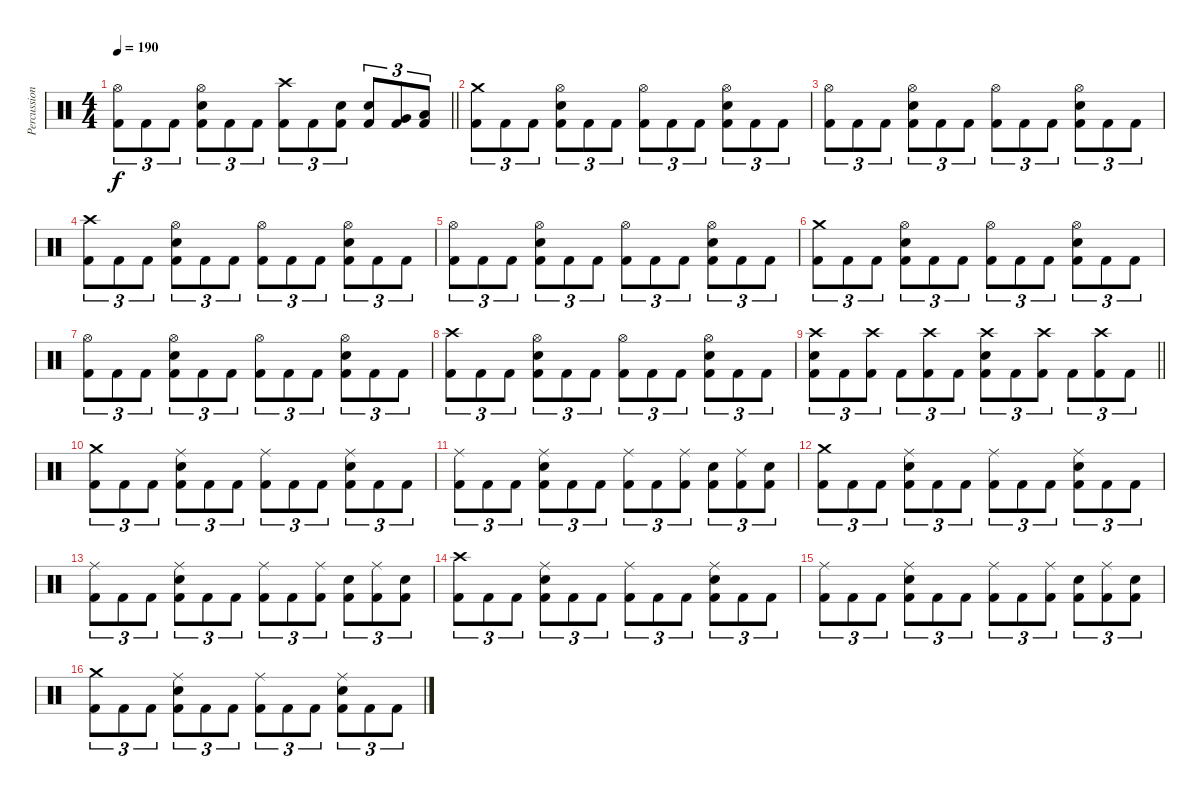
\track ("Percussion" "Percussion") {instrument percussion}
\staff {score}
\articulation defaults
\ts (4 4)
\tempo 190
\clef neutral
\barLineRight lightlight
\ks c
("Hi-Hat (open)" "Kick (hit) 2").8{tu (3 2) dy f} "Kick (hit) 2".8{tu (3 2)} "Kick (hit) 2".8{tu (3 2)} ("Hi-Hat (open)" "Snare (hit) 2" "Kick (hit) 2").8{tu (3 2)} "Kick (hit) 2".8{tu (3 2)} "Kick (hit) 2".8{tu (3 2)} ("Crash high (hit)" "Kick (hit) 2").8{tu (3 2)} "Kick (hit) 2".8{tu (3 2)} ("Snare (hit) 2" "Kick (hit) 2").8{tu (3 2)} ("Snare (hit) 2" "Kick (hit) 2").8{tu (3 2)} ("Very Low Tom (hit)" "Kick (hit) 2").8{tu (3 2)} ("Low Floor Tom (hit)" "Kick (hit) 2").8{tu (3 2)} |
("Crash medium (hit)" "Kick (hit) 2").8{tu (3 2)} "Kick (hit) 2".8{tu (3 2)} "Kick (hit) 2".8{tu (3 2)} ("Hi-Hat (open)" "Snare (hit) 2" "Kick (hit) 2").8{tu (3 2)} "Kick (hit) 2".8{tu (3 2)} "Kick (hit) 2".8{tu (3 2)} ("Hi-Hat (open)" "Kick (hit) 2").8{tu (3 2)} "Kick (hit) 2".8{tu (3 2)} "Kick (hit) 2".8{tu (3 2)} ("Hi-Hat (open)" "Snare (hit) 2" "Kick (hit) 2").8{tu (3 2)} "Kick (hit) 2".8{tu (3 2)} "Kick (hit) 2".8{tu (3 2)} |
("Hi-Hat (open)" "Kick (hit) 2").8{tu (3 2)} "Kick (hit) 2".8{tu (3 2)} "Kick (hit) 2".8{tu (3 2)} ("Hi-Hat (open)" "Snare (hit) 2" "Kick (hit) 2").8{tu (3 2)} "Kick (hit) 2".8{tu (3 2)} "Kick (hit) 2".8{tu (3 2)} ("Hi-Hat (open)" "Kick (hit) 2").8{tu (3 2)} "Kick (hit) 2".8{tu (3 2)} "Kick (hit) 2".8{tu (3 2)} ("Hi-Hat (open)" "Snare (hit) 2" "Kick (hit) 2").8{tu (3 2)} "Kick (hit) 2".8{tu (3 2)} "Kick (hit) 2".8{tu (3 2)} |
("Crash high (hit)" "Kick (hit) 2").8{tu (3 2)} "Kick (hit) 2".8{tu (3 2)} "Kick (hit) 2".8{tu (3 2)} ("Hi-Hat (open)" "Snare (hit) 2" "Kick (hit) 2").8{tu (3 2)} "Kick (hit) 2".8{tu (3 2)} "Kick (hit) 2".8{tu (3 2)} ("Hi-Hat (open)" "Kick (hit) 2").8{tu (3 2)} "Kick (hit) 2".8{tu (3 2)} "Kick (hit) 2".8{tu (3 2)} ("Hi-Hat (open)" "Snare (hit) 2" "Kick (hit) 2").8{tu (3 2)} "Kick (hit) 2".8{tu (3 2)} "Kick (hit) 2".8{tu (3 2)} |
("Hi-Hat (open)" "Kick (hit) 2").8{tu (3 2)} "Kick (hit) 2".8{tu (3 2)} "Kick (hit) 2".8{tu (3 2)} ("Hi-Hat (open)" "Snare (hit) 2" "Kick (hit) 2").8{tu (3 2)} "Kick (hit) 2".8{tu (3 2)} "Kick (hit) 2".8{tu (3 2)} ("Hi-Hat (open)" "Kick (hit) 2").8{tu (3 2)} "Kick (hit) 2".8{tu (3 2)} "Kick (hit) 2".8{tu (3 2)} ("Hi-Hat (open)" "Snare (hit) 2" "Kick (hit) 2").8{tu (3 2)} "Kick (hit) 2".8{tu (3 2)} "Kick (hit) 2".8{tu (3 2)} |
("Crash medium (hit)" "Kick (hit) 2").8{tu (3 2)} "Kick (hit) 2".8{tu (3 2)} "Kick (hit) 2".8{tu (3 2)} ("Hi-Hat (open)" "Snare (hit) 2" "Kick (hit) 2").8{tu (3 2)} "Kick (hit) 2".8{tu (3 2)} "Kick (hit) 2".8{tu (3 2)} ("Hi-Hat (open)" "Kick (hit) 2").8{tu (3 2)} "Kick (hit) 2".8{tu (3 2)} "Kick (hit) 2".8{tu (3 2)} ("Hi-Hat (open)" "Snare (hit) 2" "Kick (hit) 2").8{tu (3 2)} "Kick (hit) 2".8{tu (3 2)} "Kick (hit) 2".8{tu (3 2)} |
("Hi-Hat (open)" "Kick (hit) 2").8{tu (3 2)} "Kick (hit) 2".8{tu (3 2)} "Kick (hit) 2".8{tu (3 2)} ("Hi-Hat (open)" "Snare (hit) 2" "Kick (hit) 2").8{tu (3 2)} "Kick (hit) 2".8{tu (3 2)} "Kick (hit) 2".8{tu (3 2)} ("Hi-Hat (open)" "Kick (hit) 2").8{tu (3 2)} "Kick (hit) 2".8{tu (3 2)} "Kick (hit) 2".8{tu (3 2)} ("Hi-Hat (open)" "Snare (hit) 2" "Kick (hit) 2").8{tu (3 2)} "Kick (hit) 2".8{tu (3 2)} "Kick (hit) 2".8{tu (3 2)} |
("Crash high (hit)" "Kick (hit) 2").8{tu (3 2)} "Kick (hit) 2".8{tu (3 2)} "Kick (hit) 2".8{tu (3 2)} ("Hi-Hat (open)" "Snare (hit) 2" "Kick (hit) 2").8{tu (3 2)} "Kick (hit) 2".8{tu (3 2)} "Kick (hit) 2".8{tu (3 2)} ("Hi-Hat (open)" "Kick (hit) 2").8{tu (3 2)} "Kick (hit) 2".8{tu (3 2)} "Kick (hit) 2".8{tu (3 2)} ("Hi-Hat (open)" "Snare (hit) 2" "Kick (hit) 2").8{tu (3 2)} "Kick (hit) 2".8{tu (3 2)} "Kick (hit) 2".8{tu (3 2)} |
\barLineRight lightlight
("Crash high (hit)" "Snare (hit) 2" "Kick (hit) 2").8{tu (3 2)} "Kick (hit) 2".8{tu (3 2)} ("Crash high (hit)" "Kick (hit) 2").8{tu (3 2)} "Kick (hit) 2".8{tu (3 2)} ("Crash high (hit)" "Kick (hit) 2").8{tu (3 2)} "Kick (hit) 2".8{tu (3 2)} ("Crash high (hit)" "Snare (hit) 2" "Kick (hit) 2").8{tu (3 2)} "Kick (hit) 2".8{tu (3 2)} ("Crash high (hit)" "Kick (hit) 2").8{tu (3 2)} "Kick (hit) 2".8{tu (3 2)} ("Crash high (hit)" "Kick (hit) 2").8{tu (3 2)} "Kick (hit) 2".8{tu (3 2)} |
("Crash medium (hit)" "Kick (hit) 2").8{tu (3 2)} "Kick (hit) 2".8{tu (3 2)} "Kick (hit) 2".8{tu (3 2)} ("Ride (middle)" "Snare (hit) 2" "Kick (hit) 2").8{tu (3 2)} "Kick (hit) 2".8{tu (3 2)} "Kick (hit) 2".8{tu (3 2)} ("Ride (middle)" "Kick (hit) 2").8{tu (3 2)} "Kick (hit) 2".8{tu (3 2)} "Kick (hit) 2".8{tu (3 2)} ("Ride (middle)" "Snare (hit) 2" "Kick (hit) 2").8{tu (3 2)} "Kick (hit) 2".8{tu (3 2)} "Kick (hit) 2".8{tu (3 2)} |
("Ride (middle)" "Kick (hit) 2").8{tu (3 2)} "Kick (hit) 2".8{tu (3 2)} "Kick (hit) 2".8{tu (3 2)} ("Ride (middle)" "Snare (hit) 2" "Kick (hit) 2").8{tu (3 2)} "Kick (hit) 2".8{tu (3 2)} "Kick (hit) 2".8{tu (3 2)} ("Ride (middle)" "Kick (hit) 2").8{tu (3 2)} "Kick (hit) 2".8{tu (3 2)} ("Ride (middle)" "Kick (hit) 2").8{tu (3 2)} ("Snare (hit) 2" "Kick (hit) 2").8{tu (3 2)} ("Ride (middle)" "Kick (hit) 2").8{tu (3 2)} ("Snare (hit) 2" "Kick (hit) 2").8{tu (3 2)} |
("Crash medium (hit)" "Kick (hit) 2").8{tu (3 2)} "Kick (hit) 2".8{tu (3 2)} "Kick (hit) 2".8{tu (3 2)} ("Ride (middle)" "Snare (hit) 2" "Kick (hit) 2").8{tu (3 2)} "Kick (hit) 2".8{tu (3 2)} "Kick (hit) 2".8{tu (3 2)} ("Ride (middle)" "Kick (hit) 2").8{tu (3 2)} "Kick (hit) 2".8{tu (3 2)} "Kick (hit) 2".8{tu (3 2)} ("Ride (middle)" "Snare (hit) 2" "Kick (hit) 2").8{tu (3 2)} "Kick (hit) 2".8{tu (3 2)} "Kick (hit) 2".8{tu (3 2)} |
("Ride (middle)" "Kick (hit) 2").8{tu (3 2)} "Kick (hit) 2".8{tu (3 2)} "Kick (hit) 2".8{tu (3 2)} ("Ride (middle)" "Snare (hit) 2" "Kick (hit) 2").8{tu (3 2)} "Kick (hit) 2".8{tu (3 2)} "Kick (hit) 2".8{tu (3 2)} ("Ride (middle)" "Kick (hit) 2").8{tu (3 2)} "Kick (hit) 2".8{tu (3 2)} ("Ride (middle)" "Kick (hit) 2").8{tu (3 2)} ("Snare (hit) 2" "Kick (hit) 2").8{tu (3 2)} ("Ride (middle)" "Kick (hit) 2").8{tu (3 2)} ("Snare (hit) 2" "Kick (hit) 2").8{tu (3 2)} |
("Crash high (hit)" "Kick (hit) 2").8{tu (3 2)} "Kick (hit) 2".8{tu (3 2)} "Kick (hit) 2".8{tu (3 2)} ("Ride (middle)" "Snare (hit) 2" "Kick (hit) 2").8{tu (3 2)} "Kick (hit) 2".8{tu (3 2)} "Kick (hit) 2".8{tu (3 2)} ("Ride (middle)" "Kick (hit) 2").8{tu (3 2)} "Kick (hit) 2".8{tu (3 2)} "Kick (hit) 2".8{tu (3 2)} ("Ride (middle)" "Snare (hit) 2" "Kick (hit) 2").8{tu (3 2)} "Kick (hit) 2".8{tu (3 2)} "Kick (hit) 2".8{tu (3 2)} |
("Ride (middle)" "Kick (hit) 2").8{tu (3 2)} "Kick (hit) 2".8{tu (3 2)} "Kick (hit) 2".8{tu (3 2)} ("Ride (middle)" "Snare (hit) 2" "Kick (hit) 2").8{tu (3 2)} "Kick (hit) 2".8{tu (3 2)} "Kick (hit) 2".8{tu (3 2)} ("Ride (middle)" "Kick (hit) 2").8{tu (3 2)} "Kick (hit) 2".8{tu (3 2)} ("Ride (middle)" "Kick (hit) 2").8{tu (3 2)} ("Snare (hit) 2" "Kick (hit) 2").8{tu (3 2)} ("Ride (middle)" "Kick (hit) 2").8{tu (3 2)} ("Snare (hit) 2" "Kick (hit) 2").8{tu (3 2)} |
("Crash medium (hit)" "Kick (hit) 2").8{tu (3 2)} "Kick (hit) 2".8{tu (3 2)} "Kick (hit) 2".8{tu (3 2)} ("Ride (middle)" "Snare (hit) 2" "Kick (hit) 2").8{tu (3 2)} "Kick (hit) 2".8{tu (3 2)} "Kick (hit) 2".8{tu (3 2)} ("Ride (middle)" "Kick (hit) 2").8{tu (3 2)} "Kick (hit) 2".8{tu (3 2)} "Kick (hit) 2".8{tu (3 2)} ("Ride (middle)" "Snare (hit) 2" "Kick (hit) 2").8{tu (3 2)} "Kick (hit) 2".8{tu (3 2)} "Kick (hit) 2".8{tu (3 2)}
